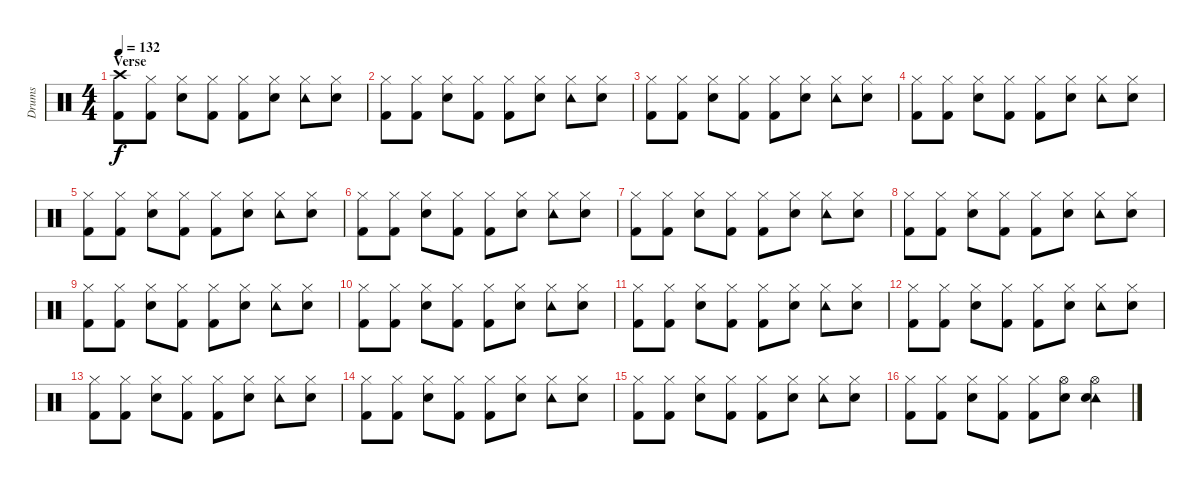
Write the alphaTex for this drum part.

\track ("Drums" "Drums") {instrument percussion}
\staff {score}
\articulation defaults
\ts (4 4)
\section ("" "Verse")
\tempo 132
\clef neutral
\ks c
("Crash high (hit)" "Kick (hit) 2").8{dy f} ("Hi-Hat (closed)" "Kick (hit) 2").8 ("Hi-Hat (closed)" "Electric Snare (hit)").8 ("Hi-Hat (closed)" "Kick (hit) 2").8 ("Hi-Hat (closed)" "Kick (hit) 2").8 ("Hi-Hat (closed)" "Electric Snare (hit)").8 ("Hi-Hat (closed)" "Tambourine (hit)").8 ("Hi-Hat (closed)" "Electric Snare (hit)").8 |
("Hi-Hat (closed)" "Kick (hit) 2").8 ("Hi-Hat (closed)" "Kick (hit) 2").8 ("Hi-Hat (closed)" "Electric Snare (hit)").8 ("Hi-Hat (closed)" "Kick (hit) 2").8 ("Hi-Hat (closed)" "Kick (hit) 2").8 ("Hi-Hat (closed)" "Electric Snare (hit)").8 ("Hi-Hat (closed)" "Tambourine (hit)").8 ("Hi-Hat (closed)" "Electric Snare (hit)").8 |
("Hi-Hat (closed)" "Kick (hit) 2").8 ("Hi-Hat (closed)" "Kick (hit) 2").8 ("Hi-Hat (closed)" "Electric Snare (hit)").8 ("Hi-Hat (closed)" "Kick (hit) 2").8 ("Hi-Hat (closed)" "Kick (hit) 2").8 ("Hi-Hat (closed)" "Electric Snare (hit)").8 ("Hi-Hat (closed)" "Tambourine (hit)").8 ("Hi-Hat (closed)" "Electric Snare (hit)").8 |
("Hi-Hat (closed)" "Kick (hit) 2").8 ("Hi-Hat (closed)" "Kick (hit) 2").8 ("Hi-Hat (closed)" "Electric Snare (hit)").8 ("Hi-Hat (closed)" "Kick (hit) 2").8 ("Hi-Hat (closed)" "Kick (hit) 2").8 ("Hi-Hat (closed)" "Electric Snare (hit)").8 ("Hi-Hat (closed)" "Tambourine (hit)").8 ("Hi-Hat (closed)" "Electric Snare (hit)").8 |
("Hi-Hat (closed)" "Kick (hit) 2").8 ("Hi-Hat (closed)" "Kick (hit) 2").8 ("Hi-Hat (closed)" "Electric Snare (hit)").8 ("Hi-Hat (closed)" "Kick (hit) 2").8 ("Hi-Hat (closed)" "Kick (hit) 2").8 ("Hi-Hat (closed)" "Electric Snare (hit)").8 ("Hi-Hat (closed)" "Tambourine (hit)").8 ("Hi-Hat (closed)" "Electric Snare (hit)").8 |
("Hi-Hat (closed)" "Kick (hit) 2").8 ("Hi-Hat (closed)" "Kick (hit) 2").8 ("Hi-Hat (closed)" "Electric Snare (hit)").8 ("Hi-Hat (closed)" "Kick (hit) 2").8 ("Hi-Hat (closed)" "Kick (hit) 2").8 ("Hi-Hat (closed)" "Electric Snare (hit)").8 ("Hi-Hat (closed)" "Tambourine (hit)").8 ("Hi-Hat (closed)" "Electric Snare (hit)").8 |
("Hi-Hat (closed)" "Kick (hit) 2").8 ("Hi-Hat (closed)" "Kick (hit) 2").8 ("Hi-Hat (closed)" "Electric Snare (hit)").8 ("Hi-Hat (closed)" "Kick (hit) 2").8 ("Hi-Hat (closed)" "Kick (hit) 2").8 ("Hi-Hat (closed)" "Electric Snare (hit)").8 ("Hi-Hat (closed)" "Tambourine (hit)").8 ("Hi-Hat (closed)" "Electric Snare (hit)").8 |
("Hi-Hat (closed)" "Kick (hit) 2").8 ("Hi-Hat (closed)" "Kick (hit) 2").8 ("Hi-Hat (closed)" "Electric Snare (hit)").8 ("Hi-Hat (closed)" "Kick (hit) 2").8 ("Hi-Hat (closed)" "Kick (hit) 2").8 ("Hi-Hat (closed)" "Electric Snare (hit)").8 ("Hi-Hat (closed)" "Tambourine (hit)").8 ("Hi-Hat (closed)" "Electric Snare (hit)").8 |
("Hi-Hat (closed)" "Kick (hit) 2").8 ("Hi-Hat (closed)" "Kick (hit) 2").8 ("Hi-Hat (closed)" "Electric Snare (hit)").8 ("Hi-Hat (closed)" "Kick (hit) 2").8 ("Hi-Hat (closed)" "Kick (hit) 2").8 ("Hi-Hat (closed)" "Electric Snare (hit)").8 ("Hi-Hat (closed)" "Tambourine (hit)").8 ("Hi-Hat (closed)" "Electric Snare (hit)").8 |
("Hi-Hat (closed)" "Kick (hit) 2").8 ("Hi-Hat (closed)" "Kick (hit) 2").8 ("Hi-Hat (closed)" "Electric Snare (hit)").8 ("Hi-Hat (closed)" "Kick (hit) 2").8 ("Hi-Hat (closed)" "Kick (hit) 2").8 ("Hi-Hat (closed)" "Electric Snare (hit)").8 ("Hi-Hat (closed)" "Tambourine (hit)").8 ("Hi-Hat (closed)" "Electric Snare (hit)").8 |
("Hi-Hat (closed)" "Kick (hit) 2").8 ("Hi-Hat (closed)" "Kick (hit) 2").8 ("Hi-Hat (closed)" "Electric Snare (hit)").8 ("Hi-Hat (closed)" "Kick (hit) 2").8 ("Hi-Hat (closed)" "Kick (hit) 2").8 ("Hi-Hat (closed)" "Electric Snare (hit)").8 ("Hi-Hat (closed)" "Tambourine (hit)").8 ("Hi-Hat (closed)" "Electric Snare (hit)").8 |
("Hi-Hat (closed)" "Kick (hit) 2").8 ("Hi-Hat (closed)" "Kick (hit) 2").8 ("Hi-Hat (closed)" "Electric Snare (hit)").8 ("Hi-Hat (closed)" "Kick (hit) 2").8 ("Hi-Hat (closed)" "Kick (hit) 2").8 ("Hi-Hat (closed)" "Electric Snare (hit)").8 ("Hi-Hat (closed)" "Tambourine (hit)").8 ("Hi-Hat (closed)" "Electric Snare (hit)").8 |
("Hi-Hat (closed)" "Kick (hit) 2").8 ("Hi-Hat (closed)" "Kick (hit) 2").8 ("Hi-Hat (closed)" "Electric Snare (hit)").8 ("Hi-Hat (closed)" "Kick (hit) 2").8 ("Hi-Hat (closed)" "Kick (hit) 2").8 ("Hi-Hat (closed)" "Electric Snare (hit)").8 ("Hi-Hat (closed)" "Tambourine (hit)").8 ("Hi-Hat (closed)" "Electric Snare (hit)").8 |
("Hi-Hat (closed)" "Kick (hit) 2").8 ("Hi-Hat (closed)" "Kick (hit) 2").8 ("Hi-Hat (closed)" "Electric Snare (hit)").8 ("Hi-Hat (closed)" "Kick (hit) 2").8 ("Hi-Hat (closed)" "Kick (hit) 2").8 ("Hi-Hat (closed)" "Electric Snare (hit)").8 ("Hi-Hat (closed)" "Tambourine (hit)").8 ("Hi-Hat (closed)" "Electric Snare (hit)").8 |
("Hi-Hat (closed)" "Kick (hit) 2").8 ("Hi-Hat (closed)" "Kick (hit) 2").8 ("Hi-Hat (closed)" "Electric Snare (hit)").8 ("Hi-Hat (closed)" "Kick (hit) 2").8 ("Hi-Hat (closed)" "Kick (hit) 2").8 ("Hi-Hat (closed)" "Electric Snare (hit)").8 ("Hi-Hat (closed)" "Tambourine (hit)").8 ("Hi-Hat (closed)" "Electric Snare (hit)").8 |
("Hi-Hat (closed)" "Kick (hit) 2").8 ("Hi-Hat (closed)" "Kick (hit) 2").8 ("Hi-Hat (closed)" "Electric Snare (hit)").8 ("Hi-Hat (closed)" "Kick (hit) 2").8 ("Hi-Hat (closed)" "Kick (hit) 2").8 ("Hi-Hat (open)" "Electric Snare (hit)").8 ("Hi-Hat (open)" "Tambourine (hit)" "Electric Snare (hit)").4
